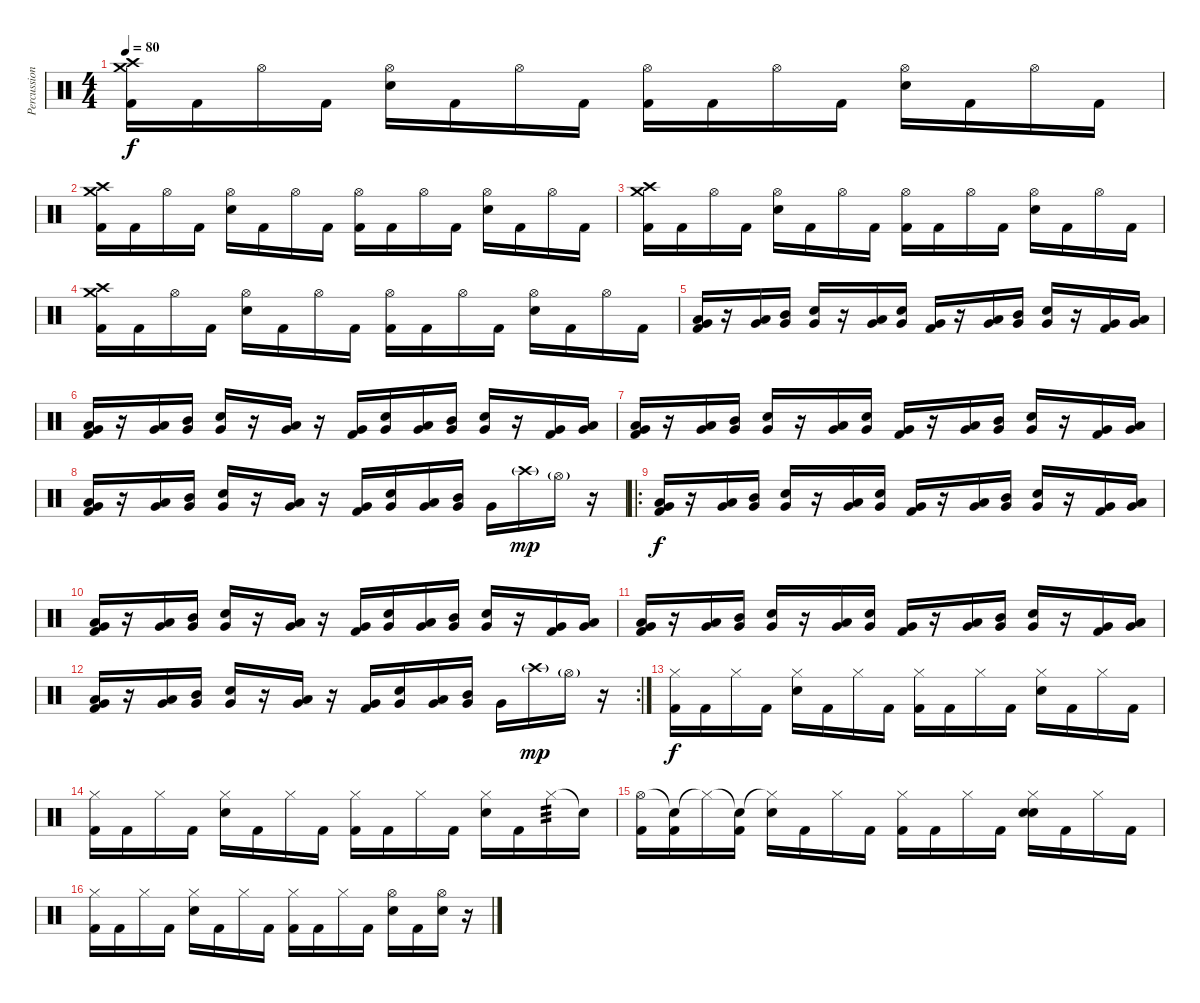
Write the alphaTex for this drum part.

\track ("Percussion" "Percussion") {instrument percussion}
\staff {score}
\articulation defaults
\ts (4 4)
\tempo 80
\clef neutral
\ks c
("Crash medium (hit)" "Crash high (hit)" "Kick (hit) 2").16{dy f} "Kick (hit) 2".16 "Hi-Hat (open)".16 "Kick (hit) 2".16 ("Hi-Hat (open)" "Electric Snare (hit)").16 "Kick (hit) 2".16 "Hi-Hat (open)".16 "Kick (hit) 2".16 ("Hi-Hat (open)" "Kick (hit) 2").16 "Kick (hit) 2".16 "Hi-Hat (open)".16 "Kick (hit) 2".16 ("Hi-Hat (open)" "Electric Snare (hit)").16 "Kick (hit) 2".16 "Hi-Hat (open)".16 "Kick (hit) 2".16 |
("Crash medium (hit)" "Crash high (hit)" "Kick (hit) 2").16 "Kick (hit) 2".16 "Hi-Hat (open)".16 "Kick (hit) 2".16 ("Hi-Hat (open)" "Electric Snare (hit)").16 "Kick (hit) 2".16 "Hi-Hat (open)".16 "Kick (hit) 2".16 ("Hi-Hat (open)" "Kick (hit) 2").16 "Kick (hit) 2".16 "Hi-Hat (open)".16 "Kick (hit) 2".16 ("Hi-Hat (open)" "Electric Snare (hit)").16 "Kick (hit) 2".16 "Hi-Hat (open)".16 "Kick (hit) 2".16 |
("Crash medium (hit)" "Crash high (hit)" "Kick (hit) 2").16 "Kick (hit) 2".16 "Hi-Hat (open)".16 "Kick (hit) 2".16 ("Hi-Hat (open)" "Electric Snare (hit)").16 "Kick (hit) 2".16 "Hi-Hat (open)".16 "Kick (hit) 2".16 ("Hi-Hat (open)" "Kick (hit) 2").16 "Kick (hit) 2".16 "Hi-Hat (open)".16 "Kick (hit) 2".16 ("Hi-Hat (open)" "Electric Snare (hit)").16 "Kick (hit) 2".16 "Hi-Hat (open)".16 "Kick (hit) 2".16 |
("Crash medium (hit)" "Crash high (hit)" "Kick (hit) 2").16 "Kick (hit) 2".16 "Hi-Hat (open)".16 "Kick (hit) 2".16 ("Hi-Hat (open)" "Electric Snare (hit)").16 "Kick (hit) 2".16 "Hi-Hat (open)".16 "Kick (hit) 2".16 ("Hi-Hat (open)" "Kick (hit) 2").16 "Kick (hit) 2".16 "Hi-Hat (open)".16 "Kick (hit) 2".16 ("Hi-Hat (open)" "Electric Snare (hit)").16 "Kick (hit) 2".16 "Hi-Hat (open)".16 "Kick (hit) 2".16 |
("Low Floor Tom (hit)" "Very Low Tom (hit)" "Kick (hit) 2").16 r.16 ("Low Tom (hit)" "Very Low Tom (hit)").16 ("Mid Tom (hit)" "Very Low Tom (hit)").16 ("Electric Snare (hit)" "Very Low Tom (hit)").16 r.16 ("Low Floor Tom (hit)" "Very Low Tom (hit)").16 ("Electric Snare (hit)" "Very Low Tom (hit)").16 ("Very Low Tom (hit)" "Kick (hit) 2").16 r.16 ("Low Tom (hit)" "Very Low Tom (hit)").16 ("Mid Tom (hit)" "Very Low Tom (hit)").16 ("Electric Snare (hit)" "Very Low Tom (hit)").16 r.16 ("Very Low Tom (hit)" "Kick (hit) 2").16 ("Low Floor Tom (hit)" "Very Low Tom (hit)").16 |
("Low Floor Tom (hit)" "Very Low Tom (hit)" "Kick (hit) 2").16 r.16 ("Low Tom (hit)" "Very Low Tom (hit)").16 ("Mid Tom (hit)" "Very Low Tom (hit)").16 ("Electric Snare (hit)" "Very Low Tom (hit)").16 r.16 ("Low Floor Tom (hit)" "Very Low Tom (hit)").16 r.16 ("Very Low Tom (hit)" "Kick (hit) 2").16 ("Electric Snare (hit)" "Very Low Tom (hit)").16 ("Low Tom (hit)" "Very Low Tom (hit)").16 ("Mid Tom (hit)" "Very Low Tom (hit)").16 ("Electric Snare (hit)" "Very Low Tom (hit)").16 r.16 ("Very Low Tom (hit)" "Kick (hit) 2").16 ("Low Floor Tom (hit)" "Very Low Tom (hit)").16 |
("Low Floor Tom (hit)" "Very Low Tom (hit)" "Kick (hit) 2").16 r.16 ("Low Tom (hit)" "Very Low Tom (hit)").16 ("Mid Tom (hit)" "Very Low Tom (hit)").16 ("Electric Snare (hit)" "Very Low Tom (hit)").16 r.16 ("Low Floor Tom (hit)" "Very Low Tom (hit)").16 ("Electric Snare (hit)" "Very Low Tom (hit)").16 ("Very Low Tom (hit)" "Kick (hit) 2").16 r.16 ("Low Tom (hit)" "Very Low Tom (hit)").16 ("Mid Tom (hit)" "Very Low Tom (hit)").16 ("Electric Snare (hit)" "Very Low Tom (hit)").16 r.16 ("Very Low Tom (hit)" "Kick (hit) 2").16 ("Low Floor Tom (hit)" "Very Low Tom (hit)").16 |
("Low Floor Tom (hit)" "Very Low Tom (hit)" "Kick (hit) 2").16 r.16 ("Low Tom (hit)" "Very Low Tom (hit)").16 ("Mid Tom (hit)" "Very Low Tom (hit)").16 ("Electric Snare (hit)" "Very Low Tom (hit)").16 r.16 ("Low Floor Tom (hit)" "Very Low Tom (hit)").16 r.16 ("Very Low Tom (hit)" "Kick (hit) 2").16 ("Electric Snare (hit)" "Very Low Tom (hit)").16 ("Low Tom (hit)" "Very Low Tom (hit)").16 ("Mid Tom (hit)" "Very Low Tom (hit)").16 "Very Low Tom (hit)".16 "Crash high (hit)"{g}.16{dy mp} "Hi-Hat (open)"{g}.16 r.16 |
\ro
("Low Floor Tom (hit)" "Very Low Tom (hit)" "Kick (hit) 2").16{dy f} r.16 ("Low Tom (hit)" "Very Low Tom (hit)").16 ("Mid Tom (hit)" "Very Low Tom (hit)").16 ("Electric Snare (hit)" "Very Low Tom (hit)").16 r.16 ("Low Floor Tom (hit)" "Very Low Tom (hit)").16 ("Electric Snare (hit)" "Very Low Tom (hit)").16 ("Very Low Tom (hit)" "Kick (hit) 2").16 r.16 ("Low Tom (hit)" "Very Low Tom (hit)").16 ("Mid Tom (hit)" "Very Low Tom (hit)").16 ("Electric Snare (hit)" "Very Low Tom (hit)").16 r.16 ("Very Low Tom (hit)" "Kick (hit) 2").16 ("Low Floor Tom (hit)" "Very Low Tom (hit)").16 |
("Low Floor Tom (hit)" "Very Low Tom (hit)" "Kick (hit) 2").16 r.16 ("Low Tom (hit)" "Very Low Tom (hit)").16 ("Mid Tom (hit)" "Very Low Tom (hit)").16 ("Electric Snare (hit)" "Very Low Tom (hit)").16 r.16 ("Low Floor Tom (hit)" "Very Low Tom (hit)").16 r.16 ("Very Low Tom (hit)" "Kick (hit) 2").16 ("Electric Snare (hit)" "Very Low Tom (hit)").16 ("Low Tom (hit)" "Very Low Tom (hit)").16 ("Mid Tom (hit)" "Very Low Tom (hit)").16 ("Electric Snare (hit)" "Very Low Tom (hit)").16 r.16 ("Very Low Tom (hit)" "Kick (hit) 2").16 ("Low Floor Tom (hit)" "Very Low Tom (hit)").16 |
("Low Floor Tom (hit)" "Very Low Tom (hit)" "Kick (hit) 2").16 r.16 ("Low Tom (hit)" "Very Low Tom (hit)").16 ("Mid Tom (hit)" "Very Low Tom (hit)").16 ("Electric Snare (hit)" "Very Low Tom (hit)").16 r.16 ("Low Floor Tom (hit)" "Very Low Tom (hit)").16 ("Electric Snare (hit)" "Very Low Tom (hit)").16 ("Very Low Tom (hit)" "Kick (hit) 2").16 r.16 ("Low Tom (hit)" "Very Low Tom (hit)").16 ("Mid Tom (hit)" "Very Low Tom (hit)").16 ("Electric Snare (hit)" "Very Low Tom (hit)").16 r.16 ("Very Low Tom (hit)" "Kick (hit) 2").16 ("Low Floor Tom (hit)" "Very Low Tom (hit)").16 |
\rc 2
("Low Floor Tom (hit)" "Very Low Tom (hit)" "Kick (hit) 2").16 r.16 ("Low Tom (hit)" "Very Low Tom (hit)").16 ("Mid Tom (hit)" "Very Low Tom (hit)").16 ("Electric Snare (hit)" "Very Low Tom (hit)").16 r.16 ("Low Floor Tom (hit)" "Very Low Tom (hit)").16 r.16 ("Very Low Tom (hit)" "Kick (hit) 2").16 ("Electric Snare (hit)" "Very Low Tom (hit)").16 ("Low Tom (hit)" "Very Low Tom (hit)").16 ("Mid Tom (hit)" "Very Low Tom (hit)").16 "Very Low Tom (hit)".16 "Crash high (hit)"{g}.16{dy mp} "Hi-Hat (open)"{g}.16 r.16 |
("Hi-Hat (closed)" "Kick (hit) 2").16{dy f} "Kick (hit) 2".16 "Hi-Hat (closed)".16 "Kick (hit) 2".16 ("Hi-Hat (closed)" "Electric Snare (hit)").16 "Kick (hit) 2".16 "Hi-Hat (closed)".16 "Kick (hit) 2".16 ("Hi-Hat (closed)" "Kick (hit) 2").16 "Kick (hit) 2".16 "Hi-Hat (closed)".16 "Kick (hit) 2".16 ("Hi-Hat (closed)" "Electric Snare (hit)").16 "Kick (hit) 2".16 "Hi-Hat (closed)".16 "Kick (hit) 2".16 |
("Hi-Hat (closed)" "Kick (hit) 2").16 "Kick (hit) 2".16 "Hi-Hat (closed)".16 "Kick (hit) 2".16 ("Hi-Hat (closed)" "Electric Snare (hit)").16 "Kick (hit) 2".16 "Hi-Hat (closed)".16 "Kick (hit) 2".16 ("Hi-Hat (closed)" "Kick (hit) 2").16 "Kick (hit) 2".16 "Hi-Hat (closed)".16 "Kick (hit) 2".16 ("Hi-Hat (closed)" "Electric Snare (hit)").16 "Kick (hit) 2".16 "Hi-Hat (closed)".16{tp 3} "Snare (hit)"{t}.16 |
("Hi-Hat (open)" "Kick (hit) 2").16 ("Snare (hit)"{t} "Kick (hit) 2").16 "Hi-Hat (closed)"{t}.16 ("Snare (hit)"{t} "Kick (hit) 2").16 ("Hi-Hat (closed)"{t} "Electric Snare (hit)").16 "Kick (hit) 2".16 "Hi-Hat (closed)".16 "Kick (hit) 2".16 ("Hi-Hat (closed)" "Kick (hit) 2").16 "Kick (hit) 2".16 "Hi-Hat (closed)".16 "Kick (hit) 2".16 ("Hi-Hat (closed)" "Electric Snare (hit)" "Electric Snare (hit)").16 "Kick (hit) 2".16 "Hi-Hat (closed)".16 "Kick (hit) 2".16 |
("Hi-Hat (closed)" "Kick (hit) 2").16 "Kick (hit) 2".16 "Hi-Hat (closed)".16 "Kick (hit) 2".16 ("Hi-Hat (closed)" "Electric Snare (hit)").16 "Kick (hit) 2".16 "Hi-Hat (closed)".16 "Kick (hit) 2".16 ("Hi-Hat (closed)" "Kick (hit) 2").16 "Kick (hit) 2".16 "Hi-Hat (closed)".16 "Kick (hit) 2".16 ("Hi-Hat (open)" "Electric Snare (hit)").16 "Kick (hit) 2".16 ("Hi-Hat (open)" "Electric Snare (hit)").16 r.16
